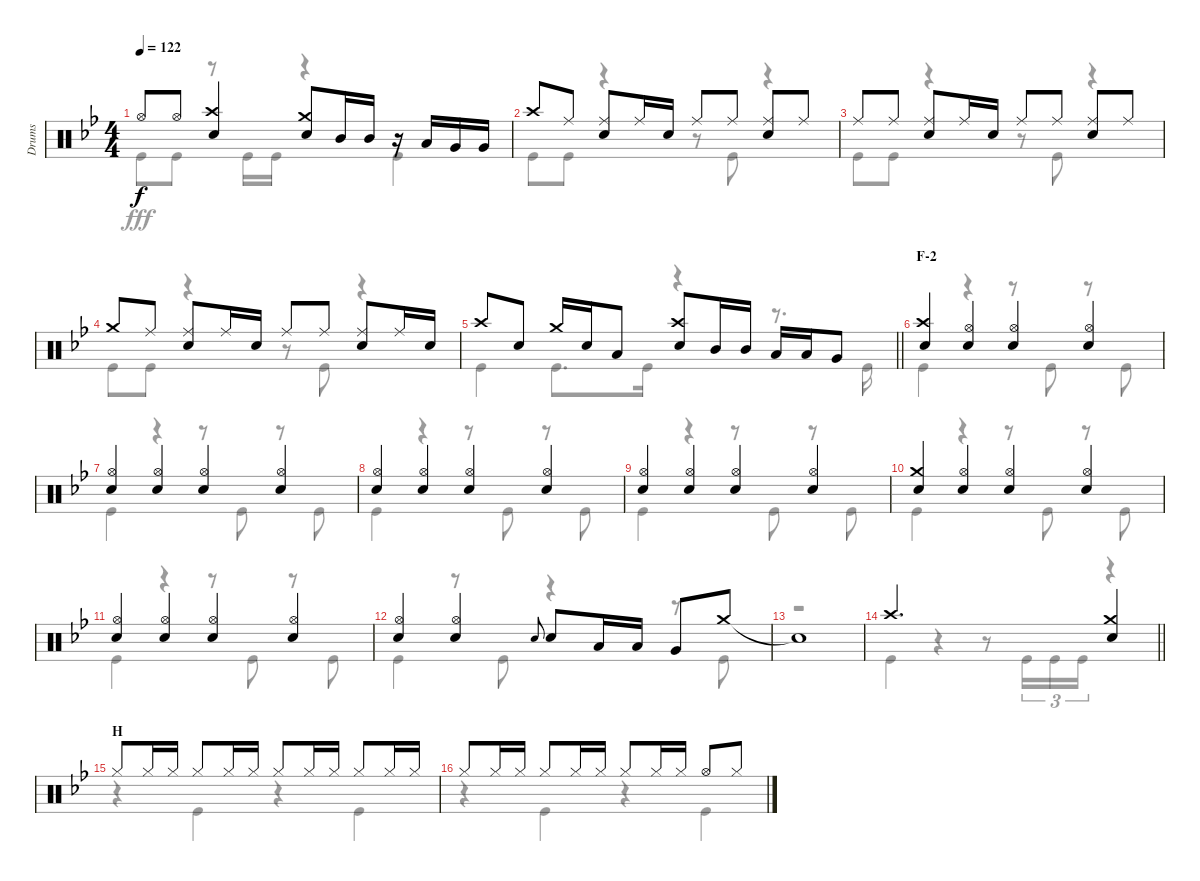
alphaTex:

\track ("Drums" "Drums") {instrument percussion}
\staff {score}
\articulation defaults
\voice
\ts (4 4)
\tempo 122
\clef neutral
\ks bb "Hi-Hat (open)".8{dy f} "Hi-Hat (open)".8
("Crash high (hit)" "Snare (hit) 2").4 ("Crash medium (hit)" "Snare (hit) 2").8 "Mid Tom (hit)".16 "Mid Tom (hit)".16 r.16 "Low Tom (hit)".16 "Very Low Tom (hit)".16 "Very Low Tom (hit)".16 |
"Crash high (hit)".8 "Ride (middle)".8 ("Ride (middle)" "Snare (hit) 2").8 "Ride (middle)".16 "Snare (hit) 2".16 "Ride (middle)".8 "Ride (middle)".8 ("Ride (middle)" "Snare (hit) 2").8 "Ride (middle)".8 |
"Ride (middle)".8 "Ride (middle)".8 ("Ride (middle)" "Snare (hit) 2").8 "Ride (middle)".16 "Snare (hit) 2".16 "Ride (middle)".8 "Ride (middle)".8 ("Ride (middle)" "Snare (hit) 2").8 "Ride (middle)".8 |
"Crash medium (hit)".8 "Ride (middle)".8 ("Ride (middle)" "Snare (hit) 2").8 "Ride (middle)".16 "Snare (hit) 2".16 "Ride (middle)".8 "Ride (middle)".8 ("Ride (middle)" "Snare (hit) 2").8 "Ride (middle)".16 "Snare (hit) 2".16 |
\barLineRight lightlight "Crash high (hit)".8 "Snare (hit) 2".8 "Crash medium (hit)".16 "Snare (hit) 2".16 "Low Tom (hit)".8
("Crash high (hit)" "Snare (hit) 2").8 "Mid Tom (hit)".16 "Mid Tom (hit)".16 "Low Tom (hit)".16 "Low Tom (hit)".16 "Very Low Tom (hit)".8 |
\section ("" "F-2")
("Crash high (hit)" "Snare (hit) 2").4 ("Hi-Hat (open)" "Snare (hit) 2").4 ("Hi-Hat (open)" "Snare (hit) 2").4 ("Hi-Hat (open)" "Snare (hit) 2").4 |
("Hi-Hat (open)" "Snare (hit) 2").4 ("Hi-Hat (open)" "Snare (hit) 2").4 ("Hi-Hat (open)" "Snare (hit) 2").4 ("Hi-Hat (open)" "Snare (hit) 2").4 |
("Hi-Hat (open)" "Snare (hit) 2").4 ("Hi-Hat (open)" "Snare (hit) 2").4 ("Hi-Hat (open)" "Snare (hit) 2").4 ("Hi-Hat (open)" "Snare (hit) 2").4 |
("Hi-Hat (open)" "Snare (hit) 2").4 ("Hi-Hat (open)" "Snare (hit) 2").4 ("Hi-Hat (open)" "Snare (hit) 2").4 ("Hi-Hat (open)" "Snare (hit) 2").4 |
("Crash medium (hit)" "Snare (hit) 2").4 ("Hi-Hat (open)" "Snare (hit) 2").4 ("Hi-Hat (open)" "Snare (hit) 2").4 ("Hi-Hat (open)" "Snare (hit) 2").4 |
("Hi-Hat (open)" "Snare (hit) 2").4 ("Hi-Hat (open)" "Snare (hit) 2").4 ("Hi-Hat (open)" "Snare (hit) 2").4 ("Hi-Hat (open)" "Snare (hit) 2").4 |
("Hi-Hat (open)" "Snare (hit) 2").4 ("Hi-Hat (open)" "Snare (hit) 2").4 "Snare (hit) 2".8{gr onbeat} "Snare (hit) 2".8 "Low Tom (hit)".16 "Low Tom (hit)".16 "Very Low Tom (hit)".8 "Crash medium (hit)".8 |
"Snare (hit)"{t}.1 |
\barLineRight lightlight "Crash high (hit)".2{d}
("Crash medium (hit)" "Snare (hit) 2").4 |
\section ("" "H")
"Hi-Hat (closed)".8 "Hi-Hat (closed)".16 "Hi-Hat (closed)".16 "Hi-Hat (closed)".8 "Hi-Hat (closed)".16 "Hi-Hat (closed)".16 "Hi-Hat (closed)".8 "Hi-Hat (closed)".16 "Hi-Hat (closed)".16 "Hi-Hat (closed)".8 "Hi-Hat (closed)".16 "Hi-Hat (closed)".16 |
"Hi-Hat (closed)".8 "Hi-Hat (closed)".16 "Hi-Hat (closed)".16 "Hi-Hat (closed)".8 "Hi-Hat (closed)".16 "Hi-Hat (closed)".16 "Hi-Hat (closed)".8 "Hi-Hat (closed)".16 "Hi-Hat (closed)".16 "Hi-Hat (open)".8 "Hi-Hat (closed)".8
\voice
\clef neutral
\ottava regular
\simile none
\ks bb "Kick (hit)".8{dy fff} "Kick (hit)".8
r.8 "Kick (hit)".16 "Kick (hit)".16 r.4 "Kick (hit)".4 |
"Kick (hit)".8 "Kick (hit)".8 r.4 r.8 "Kick (hit)".8 r.4 |
"Kick (hit)".8 "Kick (hit)".8 r.4 r.8 "Kick (hit)".8 r.4 |
"Kick (hit)".8 "Kick (hit)".8 r.4 r.8 "Kick (hit)".8 r.4 |
\barLineRight lightlight "Kick (hit)".4 "Kick (hit)".8{d} "Kick (hit)".16
r.4 r.8{d} "Kick (hit)".16 |
"Kick (hit)".4 r.4 r.8 "Kick (hit)".8 r.8 "Kick (hit)".8 |
"Kick (hit)".4 r.4 r.8 "Kick (hit)".8 r.8 "Kick (hit)".8 |
"Kick (hit)".4 r.4 r.8 "Kick (hit)".8 r.8 "Kick (hit)".8 |
"Kick (hit)".4 r.4 r.8 "Kick (hit)".8 r.8 "Kick (hit)".8 |
"Kick (hit)".4 r.4 r.8 "Kick (hit)".8 r.8 "Kick (hit)".8 |
"Kick (hit)".4 r.4 r.8 "Kick (hit)".8 r.8 "Kick (hit)".8 |
"Kick (hit)".4 r.8 "Kick (hit)".8 r.4 r.8 "Kick (hit)".8 |
r.1 |
\barLineRight lightlight "Kick (hit)".4
r.4 r.8 "Kick (hit)".16{tu (3 2)} "Kick (hit)".16{tu (3 2)} "Kick (hit)".16{tu (3 2)} r.4 |
r.4 "Kick (hit)".4 r.4 "Kick (hit)".4 |
r.4 "Kick (hit)".4 r.4 "Kick (hit)".4
